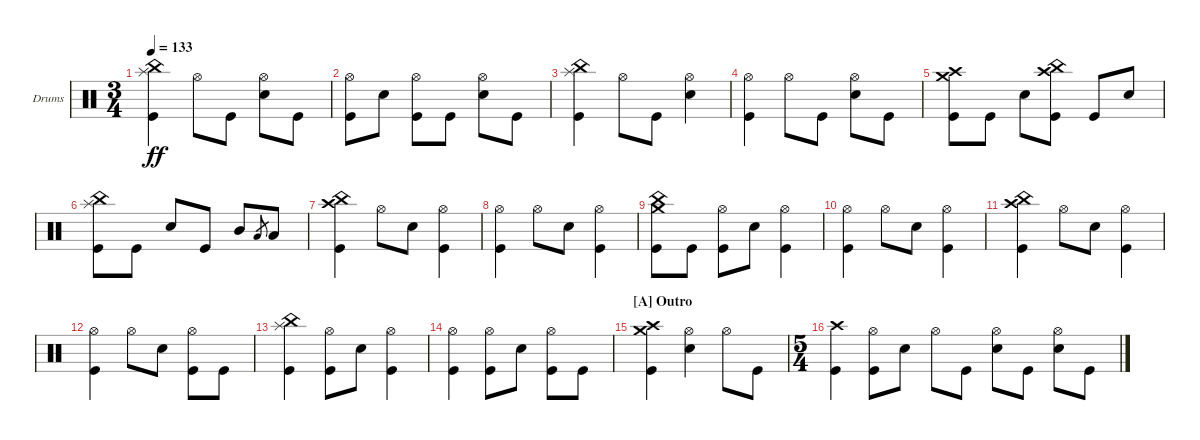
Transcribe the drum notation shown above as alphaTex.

\bracketExtendMode groupsimilarinstruments
\firstSystemTrackNameOrientation horizontal
\otherSystemsTrackNameOrientation horizontal
\track ("Drumkit" "Drums") {instrument percussion}
\staff {score}
\articulation defaults
\ts (3 4)
\tempo 133
\clef neutral
\ks c
("Kick (hit)" "China (hit)" "Splash (hit)").4{dy ff} "Hi-Hat (open)".8 "Kick (hit)".8 ("Snare (hit) 2" "Hi-Hat (open)").8 "Kick (hit)".8 |
("Kick (hit)" "Hi-Hat (open)").8 "Snare (hit) 2".8 ("Hi-Hat (open)" "Kick (hit)").8 "Kick (hit)".8 ("Hi-Hat (open)" "Snare (hit) 2").8 "Kick (hit)".8 |
("Kick (hit)" "China (hit)" "Splash (hit)").4 "Hi-Hat (open)".8 "Kick (hit)".8 ("Snare (hit) 2" "Hi-Hat (open)").4 |
("Kick (hit)" "Hi-Hat (open)").4 "Hi-Hat (open)".8 "Kick (hit)".8 ("Snare (hit) 2" "Hi-Hat (open)").8 "Kick (hit)".8 |
("Crash medium (hit)" "Crash high (hit)" "Kick (hit)").8 "Kick (hit)".8 "Snare (hit) 2".8 ("Kick (hit)" "Crash high (hit)" "China (hit)").8 "Kick (hit)".8 "Snare (hit) 2".8 |
("Kick (hit)" "Splash (hit)" "China (hit)").8 "Kick (hit)".8 "Snare (hit) 2".8 "Kick (hit)".8 "Mid Tom (hit)".8 "Low Tom (hit)".8{gr} "Low Tom (hit)".8 |
("Kick (hit)" "China (hit)" "Crash high (hit)").4 "Hi-Hat (open)".8 "Snare (hit) 2".8 ("Hi-Hat (open)" "Kick (hit)").4 |
("Kick (hit)" "Hi-Hat (open)").4 "Hi-Hat (open)".8 "Snare (hit) 2".8 ("Hi-Hat (open)" "Kick (hit)").4 |
("Kick (hit)" "China (hit)" "Crash medium (hit)").8 "Kick (hit)".8 ("Hi-Hat (open)" "Kick (hit)").8 "Snare (hit) 2".8 ("Hi-Hat (open)" "Kick (hit)").4 |
("Kick (hit)" "Hi-Hat (open)").4 "Hi-Hat (open)".8 "Snare (hit) 2".8 ("Hi-Hat (open)" "Kick (hit)").4 |
("Kick (hit)" "China (hit)" "Crash high (hit)").4 "Hi-Hat (open)".8 "Snare (hit) 2".8 ("Hi-Hat (open)" "Kick (hit)").4 |
("Kick (hit)" "Hi-Hat (open)").4 "Hi-Hat (open)".8 "Snare (hit) 2".8 ("Hi-Hat (open)" "Kick (hit)").8 "Kick (hit)".8 |
("Kick (hit)" "China (hit)" "Splash (hit)").4 ("Hi-Hat (open)" "Kick (hit)").8 "Snare (hit) 2".8 ("Hi-Hat (open)" "Kick (hit)").4 |
("Kick (hit)" "Hi-Hat (open)").4 ("Hi-Hat (open)" "Kick (hit)").8 "Snare (hit) 2".8 ("Hi-Hat (open)" "Kick (hit)").8 "Kick (hit)".8 |
\section ("A" "Outro")
("Kick (hit)" "Crash medium (hit)" "Crash high (hit)").4 ("Hi-Hat (open)" "Snare (hit) 2").4 "Hi-Hat (open)".8 "Kick (hit)".8 |
\ts (5 4)
("Crash high (hit)" "Kick (hit)").4 ("Hi-Hat (open)" "Kick (hit)").8 "Snare (hit) 2".8 "Hi-Hat (open)".8 "Kick (hit)".8 ("Hi-Hat (open)" "Snare (hit) 2").8 "Kick (hit)".8 ("Hi-Hat (open)" "Snare (hit) 2").8 "Kick (hit)".8
